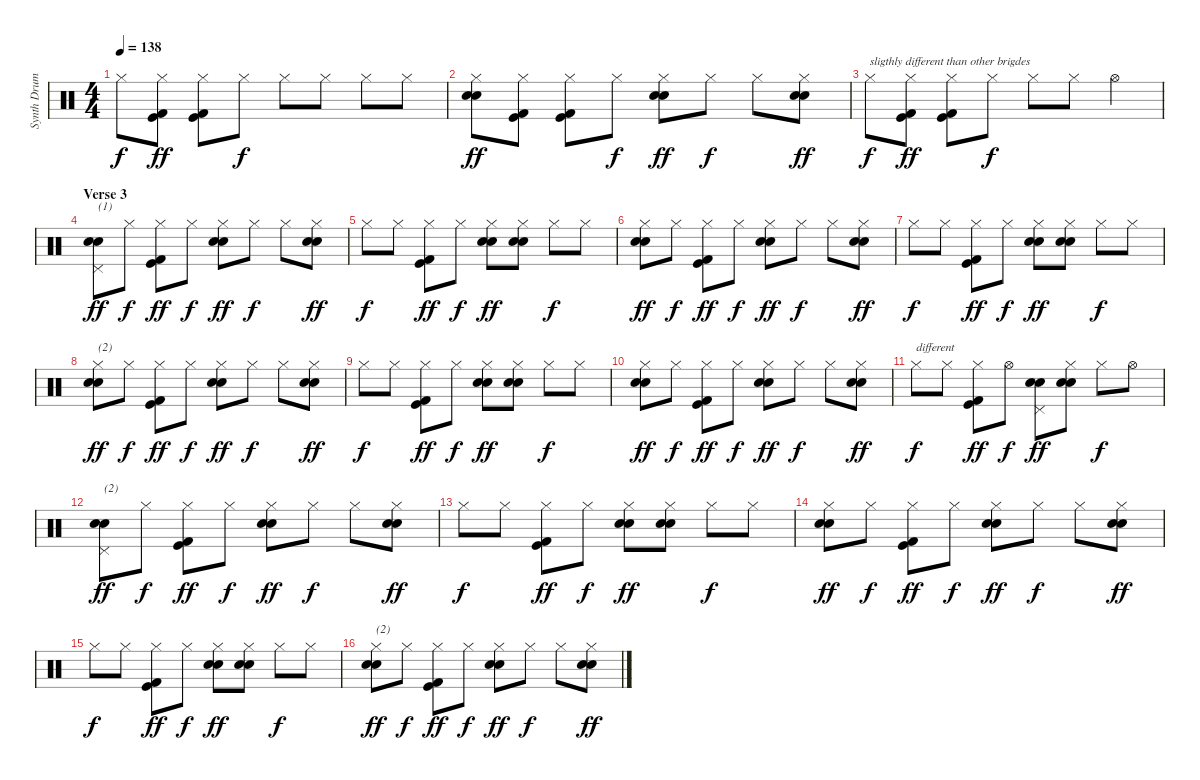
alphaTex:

\track ("Synth Drums" "Synth Drum") {instrument percussion}
\staff {score}
\articulation defaults
\ts (4 4)
\tempo 138
\clef neutral
\ks c "Hi-Hat (closed)".8{dy f}
("Hi-Hat (closed)" "Kick (hit)" "Kick (hit) 2").8{dy ff} ("Hi-Hat (closed)" "Kick (hit)" "Kick (hit) 2").8 "Hi-Hat (closed)".8{dy f} "Hi-Hat (closed)".8 "Hi-Hat (closed)".8 "Hi-Hat (closed)".8 "Hi-Hat (closed)".8 |
("Hi-Hat (closed)" "Electric Snare (hit)" "Snare (hit) 2").8{dy ff} ("Hi-Hat (closed)" "Kick (hit)" "Kick (hit) 2").8 ("Hi-Hat (closed)" "Kick (hit)" "Kick (hit) 2").8 "Hi-Hat (closed)".8{dy f} ("Hi-Hat (closed)" "Electric Snare (hit)" "Snare (hit) 2").8{dy ff} "Hi-Hat (closed)".8{dy f} "Hi-Hat (closed)".8 ("Hi-Hat (closed)" "Electric Snare (hit)" "Snare (hit) 2").8{dy ff} |
"Hi-Hat (closed)".8{txt "sligthly different than other brigdes" dy f} ("Hi-Hat (closed)" "Kick (hit)" "Kick (hit) 2").8{dy ff} ("Hi-Hat (closed)" "Kick (hit)" "Kick (hit) 2").8 "Hi-Hat (closed)".8{dy f} "Hi-Hat (closed)".8 "Hi-Hat (closed)".8 "Hi-Hat (open)".4 |
\section ("" "Verse 3")
("Pedal Hi-Hat (hit)" "Electric Snare (hit)" "Snare (hit) 2").8{txt "(1)" dy ff} "Hi-Hat (closed)".8{dy f} ("Hi-Hat (closed)" "Kick (hit)" "Kick (hit) 2").8{dy ff} "Hi-Hat (closed)".8{dy f} ("Hi-Hat (closed)" "Electric Snare (hit)" "Snare (hit) 2").8{dy ff} "Hi-Hat (closed)".8{dy f} "Hi-Hat (closed)".8 ("Hi-Hat (closed)" "Electric Snare (hit)" "Snare (hit) 2").8{dy ff} |
"Hi-Hat (closed)".8{dy f} "Hi-Hat (closed)".8 ("Hi-Hat (closed)" "Kick (hit)" "Kick (hit) 2").8{dy ff} "Hi-Hat (closed)".8{dy f} ("Hi-Hat (closed)" "Electric Snare (hit)" "Snare (hit) 2").8{dy ff} ("Hi-Hat (closed)" "Electric Snare (hit)" "Snare (hit) 2").8 "Hi-Hat (closed)".8{dy f} "Hi-Hat (closed)".8 |
("Hi-Hat (closed)" "Electric Snare (hit)" "Snare (hit) 2").8{dy ff} "Hi-Hat (closed)".8{dy f} ("Hi-Hat (closed)" "Kick (hit)" "Kick (hit) 2").8{dy ff} "Hi-Hat (closed)".8{dy f} ("Hi-Hat (closed)" "Electric Snare (hit)" "Snare (hit) 2").8{dy ff} "Hi-Hat (closed)".8{dy f} "Hi-Hat (closed)".8 ("Hi-Hat (closed)" "Electric Snare (hit)" "Snare (hit) 2").8{dy ff} |
"Hi-Hat (closed)".8{dy f} "Hi-Hat (closed)".8 ("Hi-Hat (closed)" "Kick (hit)" "Kick (hit) 2").8{dy ff} "Hi-Hat (closed)".8{dy f} ("Hi-Hat (closed)" "Electric Snare (hit)" "Snare (hit) 2").8{dy ff} ("Hi-Hat (closed)" "Electric Snare (hit)" "Snare (hit) 2").8 "Hi-Hat (closed)".8{dy f} "Hi-Hat (closed)".8 |
("Hi-Hat (closed)" "Electric Snare (hit)" "Snare (hit) 2").8{txt "(2)" dy ff} "Hi-Hat (closed)".8{dy f} ("Hi-Hat (closed)" "Kick (hit)" "Kick (hit) 2").8{dy ff} "Hi-Hat (closed)".8{dy f} ("Hi-Hat (closed)" "Electric Snare (hit)" "Snare (hit) 2").8{dy ff} "Hi-Hat (closed)".8{dy f} "Hi-Hat (closed)".8 ("Hi-Hat (closed)" "Electric Snare (hit)" "Snare (hit) 2").8{dy ff} |
"Hi-Hat (closed)".8{dy f} "Hi-Hat (closed)".8 ("Hi-Hat (closed)" "Kick (hit)" "Kick (hit) 2").8{dy ff} "Hi-Hat (closed)".8{dy f} ("Hi-Hat (closed)" "Electric Snare (hit)" "Snare (hit) 2").8{dy ff} ("Hi-Hat (closed)" "Electric Snare (hit)" "Snare (hit) 2").8 "Hi-Hat (closed)".8{dy f} "Hi-Hat (closed)".8 |
("Hi-Hat (closed)" "Electric Snare (hit)" "Snare (hit) 2").8{dy ff} "Hi-Hat (closed)".8{dy f} ("Hi-Hat (closed)" "Kick (hit)" "Kick (hit) 2").8{dy ff} "Hi-Hat (closed)".8{dy f} ("Hi-Hat (closed)" "Electric Snare (hit)" "Snare (hit) 2").8{dy ff} "Hi-Hat (closed)".8{dy f} "Hi-Hat (closed)".8 ("Hi-Hat (closed)" "Electric Snare (hit)" "Snare (hit) 2").8{dy ff} |
"Hi-Hat (closed)".8{txt "different" dy f} "Hi-Hat (closed)".8 ("Hi-Hat (closed)" "Kick (hit)" "Kick (hit) 2").8{dy ff} "Hi-Hat (open)".8{dy f} ("Pedal Hi-Hat (hit)" "Electric Snare (hit)" "Snare (hit) 2").8{dy ff} ("Hi-Hat (closed)" "Electric Snare (hit)" "Snare (hit) 2").8 "Hi-Hat (closed)".8{dy f} "Hi-Hat (open)".8 |
("Pedal Hi-Hat (hit)" "Electric Snare (hit)" "Snare (hit) 2").8{txt "(2)" dy ff} "Hi-Hat (closed)".8{dy f} ("Hi-Hat (closed)" "Kick (hit)" "Kick (hit) 2").8{dy ff} "Hi-Hat (closed)".8{dy f} ("Hi-Hat (closed)" "Electric Snare (hit)" "Snare (hit) 2").8{dy ff} "Hi-Hat (closed)".8{dy f} "Hi-Hat (closed)".8 ("Hi-Hat (closed)" "Electric Snare (hit)" "Snare (hit) 2").8{dy ff} |
"Hi-Hat (closed)".8{dy f} "Hi-Hat (closed)".8 ("Hi-Hat (closed)" "Kick (hit)" "Kick (hit) 2").8{dy ff} "Hi-Hat (closed)".8{dy f} ("Hi-Hat (closed)" "Electric Snare (hit)" "Snare (hit) 2").8{dy ff} ("Hi-Hat (closed)" "Electric Snare (hit)" "Snare (hit) 2").8 "Hi-Hat (closed)".8{dy f} "Hi-Hat (closed)".8 |
("Hi-Hat (closed)" "Electric Snare (hit)" "Snare (hit) 2").8{dy ff} "Hi-Hat (closed)".8{dy f} ("Hi-Hat (closed)" "Kick (hit)" "Kick (hit) 2").8{dy ff} "Hi-Hat (closed)".8{dy f} ("Hi-Hat (closed)" "Electric Snare (hit)" "Snare (hit) 2").8{dy ff} "Hi-Hat (closed)".8{dy f} "Hi-Hat (closed)".8 ("Hi-Hat (closed)" "Electric Snare (hit)" "Snare (hit) 2").8{dy ff} |
"Hi-Hat (closed)".8{dy f} "Hi-Hat (closed)".8 ("Hi-Hat (closed)" "Kick (hit)" "Kick (hit) 2").8{dy ff} "Hi-Hat (closed)".8{dy f} ("Hi-Hat (closed)" "Electric Snare (hit)" "Snare (hit) 2").8{dy ff} ("Hi-Hat (closed)" "Electric Snare (hit)" "Snare (hit) 2").8 "Hi-Hat (closed)".8{dy f} "Hi-Hat (closed)".8 |
("Hi-Hat (closed)" "Electric Snare (hit)" "Snare (hit) 2").8{txt "(2)" dy ff} "Hi-Hat (closed)".8{dy f} ("Hi-Hat (closed)" "Kick (hit)" "Kick (hit) 2").8{dy ff} "Hi-Hat (closed)".8{dy f} ("Hi-Hat (closed)" "Electric Snare (hit)" "Snare (hit) 2").8{dy ff} "Hi-Hat (closed)".8{dy f} "Hi-Hat (closed)".8 ("Hi-Hat (closed)" "Electric Snare (hit)" "Snare (hit) 2").8{dy ff}
